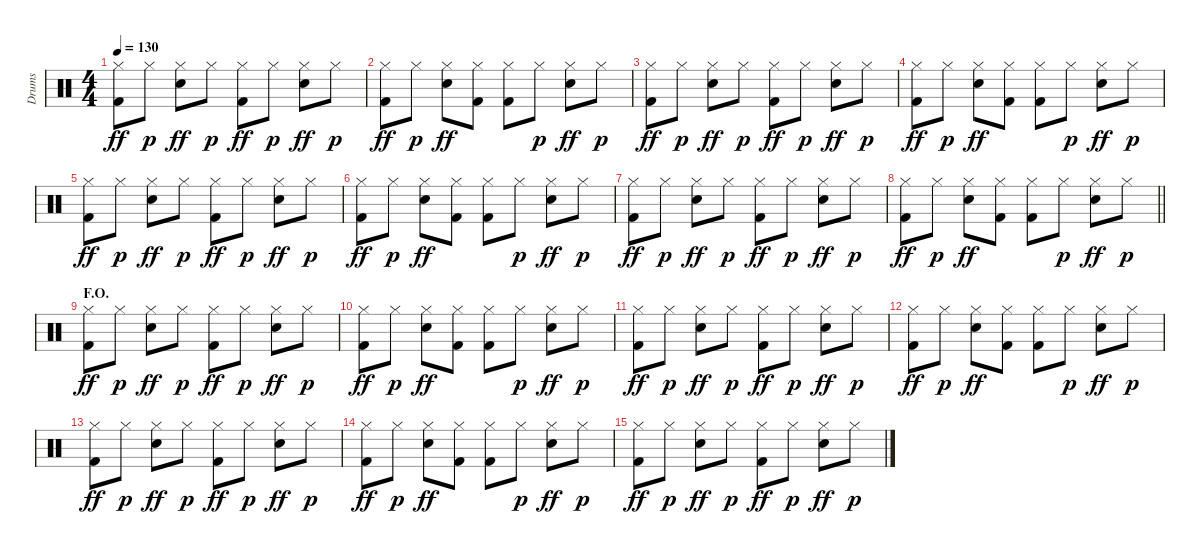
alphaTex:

\track ("Drums" "Drums") {instrument percussion}
\staff {score}
\articulation defaults
\ts (4 4)
\tempo 130
\clef neutral
\ks c
("Hi-Hat (closed)" "Kick (hit) 2").8{dy ff} "Hi-Hat (closed)".8{dy p} ("Hi-Hat (closed)" "Electric Snare (hit)").8{dy ff} "Hi-Hat (closed)".8{dy p} ("Hi-Hat (closed)" "Kick (hit) 2").8{dy ff} "Hi-Hat (closed)".8{dy p} ("Hi-Hat (closed)" "Electric Snare (hit)").8{dy ff} "Hi-Hat (closed)".8{dy p} |
("Hi-Hat (closed)" "Kick (hit) 2").8{dy ff} "Hi-Hat (closed)".8{dy p} ("Hi-Hat (closed)" "Electric Snare (hit)").8{dy ff} ("Hi-Hat (closed)" "Kick (hit) 2").8 ("Hi-Hat (closed)" "Kick (hit) 2").8 "Hi-Hat (closed)".8{dy p} ("Hi-Hat (closed)" "Electric Snare (hit)").8{dy ff} "Hi-Hat (closed)".8{dy p} |
("Hi-Hat (closed)" "Kick (hit) 2").8{dy ff} "Hi-Hat (closed)".8{dy p} ("Hi-Hat (closed)" "Electric Snare (hit)").8{dy ff} "Hi-Hat (closed)".8{dy p} ("Hi-Hat (closed)" "Kick (hit) 2").8{dy ff} "Hi-Hat (closed)".8{dy p} ("Hi-Hat (closed)" "Electric Snare (hit)").8{dy ff} "Hi-Hat (closed)".8{dy p} |
("Hi-Hat (closed)" "Kick (hit) 2").8{dy ff} "Hi-Hat (closed)".8{dy p} ("Hi-Hat (closed)" "Electric Snare (hit)").8{dy ff} ("Hi-Hat (closed)" "Kick (hit) 2").8 ("Hi-Hat (closed)" "Kick (hit) 2").8 "Hi-Hat (closed)".8{dy p} ("Hi-Hat (closed)" "Electric Snare (hit)").8{dy ff} "Hi-Hat (closed)".8{dy p} |
("Hi-Hat (closed)" "Kick (hit) 2").8{dy ff} "Hi-Hat (closed)".8{dy p} ("Hi-Hat (closed)" "Electric Snare (hit)").8{dy ff} "Hi-Hat (closed)".8{dy p} ("Hi-Hat (closed)" "Kick (hit) 2").8{dy ff} "Hi-Hat (closed)".8{dy p} ("Hi-Hat (closed)" "Electric Snare (hit)").8{dy ff} "Hi-Hat (closed)".8{dy p} |
("Hi-Hat (closed)" "Kick (hit) 2").8{dy ff} "Hi-Hat (closed)".8{dy p} ("Hi-Hat (closed)" "Electric Snare (hit)").8{dy ff} ("Hi-Hat (closed)" "Kick (hit) 2").8 ("Hi-Hat (closed)" "Kick (hit) 2").8 "Hi-Hat (closed)".8{dy p} ("Hi-Hat (closed)" "Electric Snare (hit)").8{dy ff} "Hi-Hat (closed)".8{dy p} |
("Hi-Hat (closed)" "Kick (hit) 2").8{dy ff} "Hi-Hat (closed)".8{dy p} ("Hi-Hat (closed)" "Electric Snare (hit)").8{dy ff} "Hi-Hat (closed)".8{dy p} ("Hi-Hat (closed)" "Kick (hit) 2").8{dy ff} "Hi-Hat (closed)".8{dy p} ("Hi-Hat (closed)" "Electric Snare (hit)").8{dy ff} "Hi-Hat (closed)".8{dy p} |
\barLineRight lightlight
("Hi-Hat (closed)" "Kick (hit) 2").8{dy ff} "Hi-Hat (closed)".8{dy p} ("Hi-Hat (closed)" "Electric Snare (hit)").8{dy ff} ("Hi-Hat (closed)" "Kick (hit) 2").8 ("Hi-Hat (closed)" "Kick (hit) 2").8 "Hi-Hat (closed)".8{dy p} ("Hi-Hat (closed)" "Electric Snare (hit)").8{dy ff} "Hi-Hat (closed)".8{dy p} |
\section ("" "F.O.")
("Hi-Hat (closed)" "Kick (hit) 2").8{dy ff volume 5} "Hi-Hat (closed)".8{dy p} ("Hi-Hat (closed)" "Electric Snare (hit)").8{dy ff} "Hi-Hat (closed)".8{dy p} ("Hi-Hat (closed)" "Kick (hit) 2").8{dy ff} "Hi-Hat (closed)".8{dy p} ("Hi-Hat (closed)" "Electric Snare (hit)").8{dy ff} "Hi-Hat (closed)".8{dy p} |
("Hi-Hat (closed)" "Kick (hit) 2").8{dy ff} "Hi-Hat (closed)".8{dy p} ("Hi-Hat (closed)" "Electric Snare (hit)").8{dy ff} ("Hi-Hat (closed)" "Kick (hit) 2").8 ("Hi-Hat (closed)" "Kick (hit) 2").8 "Hi-Hat (closed)".8{dy p} ("Hi-Hat (closed)" "Electric Snare (hit)").8{dy ff} "Hi-Hat (closed)".8{dy p} |
("Hi-Hat (closed)" "Kick (hit) 2").8{dy ff} "Hi-Hat (closed)".8{dy p} ("Hi-Hat (closed)" "Electric Snare (hit)").8{dy ff} "Hi-Hat (closed)".8{dy p} ("Hi-Hat (closed)" "Kick (hit) 2").8{dy ff} "Hi-Hat (closed)".8{dy p} ("Hi-Hat (closed)" "Electric Snare (hit)").8{dy ff} "Hi-Hat (closed)".8{dy p} |
("Hi-Hat (closed)" "Kick (hit) 2").8{dy ff} "Hi-Hat (closed)".8{dy p} ("Hi-Hat (closed)" "Electric Snare (hit)").8{dy ff} ("Hi-Hat (closed)" "Kick (hit) 2").8 ("Hi-Hat (closed)" "Kick (hit) 2").8 "Hi-Hat (closed)".8{dy p} ("Hi-Hat (closed)" "Electric Snare (hit)").8{dy ff} "Hi-Hat (closed)".8{dy p} |
("Hi-Hat (closed)" "Kick (hit) 2").8{dy ff} "Hi-Hat (closed)".8{dy p} ("Hi-Hat (closed)" "Electric Snare (hit)").8{dy ff} "Hi-Hat (closed)".8{dy p} ("Hi-Hat (closed)" "Kick (hit) 2").8{dy ff} "Hi-Hat (closed)".8{dy p} ("Hi-Hat (closed)" "Electric Snare (hit)").8{dy ff} "Hi-Hat (closed)".8{dy p} |
("Hi-Hat (closed)" "Kick (hit) 2").8{dy ff} "Hi-Hat (closed)".8{dy p} ("Hi-Hat (closed)" "Electric Snare (hit)").8{dy ff} ("Hi-Hat (closed)" "Kick (hit) 2").8 ("Hi-Hat (closed)" "Kick (hit) 2").8 "Hi-Hat (closed)".8{dy p} ("Hi-Hat (closed)" "Electric Snare (hit)").8{dy ff} "Hi-Hat (closed)".8{dy p} |
("Hi-Hat (closed)" "Kick (hit) 2").8{dy ff} "Hi-Hat (closed)".8{dy p} ("Hi-Hat (closed)" "Electric Snare (hit)").8{dy ff} "Hi-Hat (closed)".8{dy p} ("Hi-Hat (closed)" "Kick (hit) 2").8{dy ff} "Hi-Hat (closed)".8{dy p} ("Hi-Hat (closed)" "Electric Snare (hit)").8{dy ff} "Hi-Hat (closed)".8{dy p}
